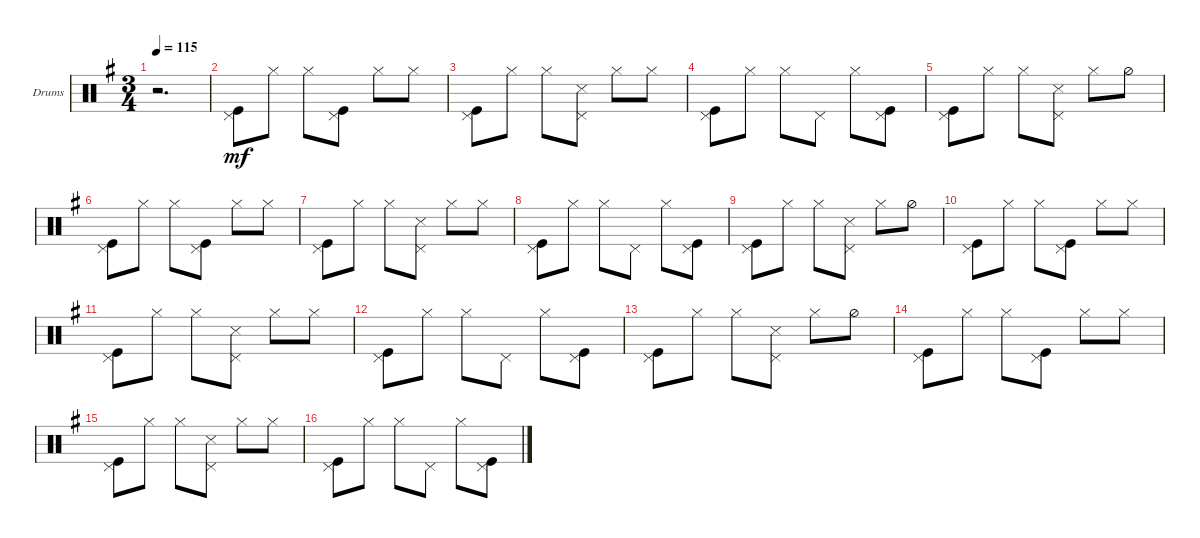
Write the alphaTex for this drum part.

\defaultSystemsLayout 4
\bracketExtendMode groupsimilarinstruments
\firstSystemTrackNameOrientation horizontal
\otherSystemsTrackNameOrientation horizontal
\track ("Drumkit" "Drums") {multiBarRest instrument percussion}
\staff {score}
\articulation defaults
\ts (3 4)
\tempo 115
\clef neutral
\ks eminor
r.2{d dy mp} |
("Kick (hit)" "Pedal Hi-Hat (hit)").8{dy mf} "Hi-Hat (closed)".8 "Hi-Hat (closed)".8 ("Kick (hit)" "Pedal Hi-Hat (hit)").8 "Hi-Hat (closed)".8 "Hi-Hat (closed)".8 |
("Kick (hit)" "Pedal Hi-Hat (hit)").8 "Hi-Hat (closed)".8 "Hi-Hat (closed)".8 ("Pedal Hi-Hat (hit)" "Snare (side stick) 3").8 "Hi-Hat (closed)".8 "Hi-Hat (closed)".8 |
("Kick (hit)" "Pedal Hi-Hat (hit)").8 "Hi-Hat (closed)".8 "Hi-Hat (closed)".8 "Pedal Hi-Hat (hit)".8 "Hi-Hat (closed)".8 ("Pedal Hi-Hat (hit)" "Kick (hit)").8 |
("Kick (hit)" "Pedal Hi-Hat (hit)").8 "Hi-Hat (closed)".8 "Hi-Hat (closed)".8 ("Pedal Hi-Hat (hit)" "Snare (side stick) 3").8 "Hi-Hat (closed)".8 "Hi-Hat (half)".8 |
("Kick (hit)" "Pedal Hi-Hat (hit)").8 "Hi-Hat (closed)".8 "Hi-Hat (closed)".8 ("Kick (hit)" "Pedal Hi-Hat (hit)").8 "Hi-Hat (closed)".8 "Hi-Hat (closed)".8 |
("Kick (hit)" "Pedal Hi-Hat (hit)").8 "Hi-Hat (closed)".8 "Hi-Hat (closed)".8 ("Pedal Hi-Hat (hit)" "Snare (side stick) 3").8 "Hi-Hat (closed)".8 "Hi-Hat (closed)".8 |
("Kick (hit)" "Pedal Hi-Hat (hit)").8 "Hi-Hat (closed)".8 "Hi-Hat (closed)".8 "Pedal Hi-Hat (hit)".8 "Hi-Hat (closed)".8 ("Pedal Hi-Hat (hit)" "Kick (hit)").8 |
("Kick (hit)" "Pedal Hi-Hat (hit)").8 "Hi-Hat (closed)".8 "Hi-Hat (closed)".8 ("Pedal Hi-Hat (hit)" "Snare (side stick) 3").8 "Hi-Hat (closed)".8 "Hi-Hat (half)".8 |
("Kick (hit)" "Pedal Hi-Hat (hit)").8 "Hi-Hat (closed)".8 "Hi-Hat (closed)".8 ("Kick (hit)" "Pedal Hi-Hat (hit)").8 "Hi-Hat (closed)".8 "Hi-Hat (closed)".8 |
("Kick (hit)" "Pedal Hi-Hat (hit)").8 "Hi-Hat (closed)".8 "Hi-Hat (closed)".8 ("Pedal Hi-Hat (hit)" "Snare (side stick) 3").8 "Hi-Hat (closed)".8 "Hi-Hat (closed)".8 |
("Kick (hit)" "Pedal Hi-Hat (hit)").8 "Hi-Hat (closed)".8 "Hi-Hat (closed)".8 "Pedal Hi-Hat (hit)".8 "Hi-Hat (closed)".8 ("Pedal Hi-Hat (hit)" "Kick (hit)").8 |
("Kick (hit)" "Pedal Hi-Hat (hit)").8 "Hi-Hat (closed)".8 "Hi-Hat (closed)".8 ("Pedal Hi-Hat (hit)" "Snare (side stick) 3").8 "Hi-Hat (closed)".8 "Hi-Hat (half)".8 |
("Kick (hit)" "Pedal Hi-Hat (hit)").8 "Hi-Hat (closed)".8 "Hi-Hat (closed)".8 ("Kick (hit)" "Pedal Hi-Hat (hit)").8 "Hi-Hat (closed)".8 "Hi-Hat (closed)".8 |
("Kick (hit)" "Pedal Hi-Hat (hit)").8 "Hi-Hat (closed)".8 "Hi-Hat (closed)".8 ("Pedal Hi-Hat (hit)" "Snare (side stick) 3").8 "Hi-Hat (closed)".8 "Hi-Hat (closed)".8 |
("Kick (hit)" "Pedal Hi-Hat (hit)").8 "Hi-Hat (closed)".8 "Hi-Hat (closed)".8 "Pedal Hi-Hat (hit)".8 "Hi-Hat (closed)".8 ("Pedal Hi-Hat (hit)" "Kick (hit)").8
